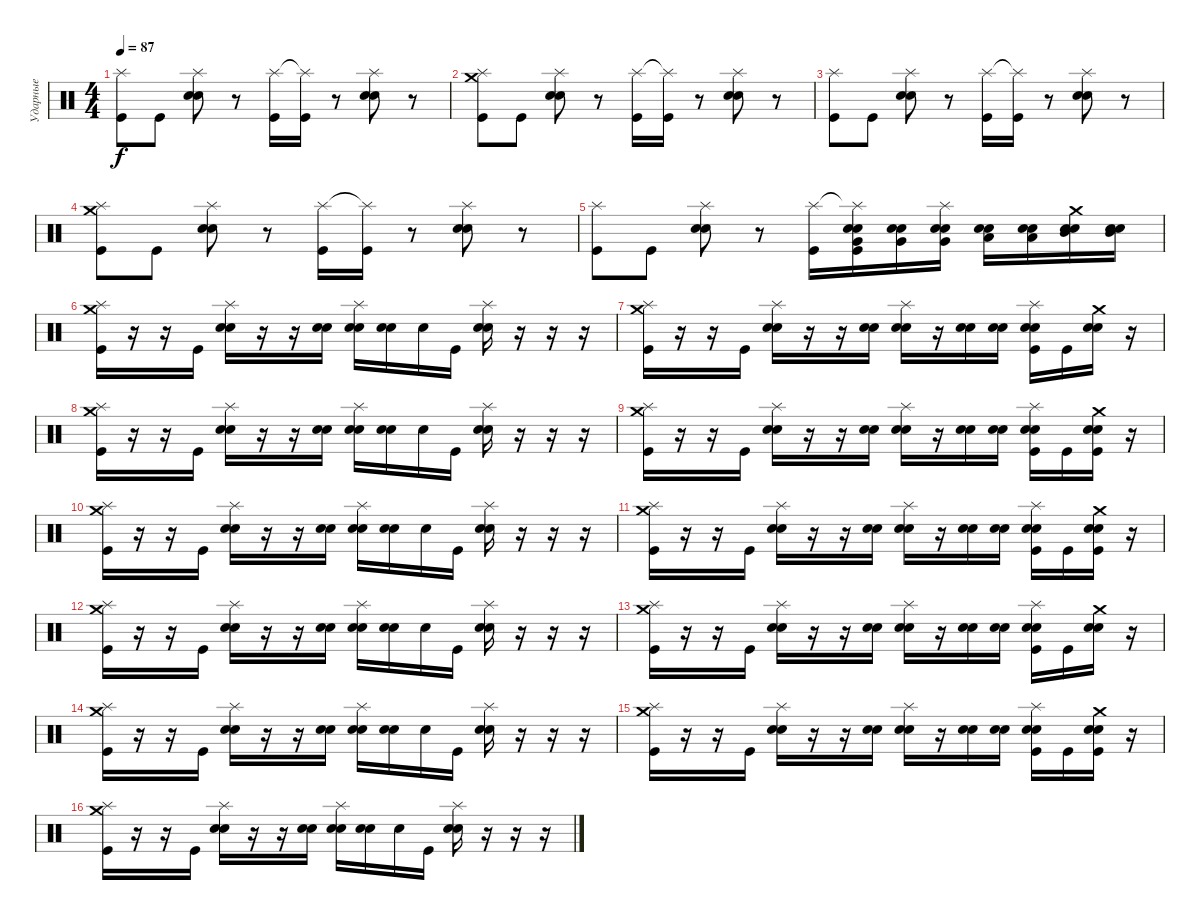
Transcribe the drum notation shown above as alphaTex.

\track ("Ударные" "Ударные") {instrument percussion}
\staff {score}
\articulation defaults
\ts (4 4)
\tempo 87
\clef neutral
\ks c
("Splash (hit)" "Kick (hit)").8{dy f} "Kick (hit)".8 ("Splash (hit)" "Electric Snare (hit)" "Electric Snare (hit)").8 r.8 ("Splash (hit)" "Kick (hit)").16 ("Splash (hit)"{t} "Kick (hit)").16 r.8 ("Splash (hit)" "Electric Snare (hit)" "Electric Snare (hit)").8 r.8 |
("Splash (hit)" "Crash medium (hit)" "Kick (hit)").8 "Kick (hit)".8 ("Splash (hit)" "Electric Snare (hit)" "Electric Snare (hit)").8 r.8 ("Splash (hit)" "Kick (hit)").16 ("Splash (hit)"{t} "Kick (hit)").16 r.8 ("Splash (hit)" "Electric Snare (hit)" "Electric Snare (hit)").8 r.8 |
("Splash (hit)" "Kick (hit)").8 "Kick (hit)".8 ("Splash (hit)" "Electric Snare (hit)" "Electric Snare (hit)").8 r.8 ("Splash (hit)" "Kick (hit)").16 ("Splash (hit)"{t} "Kick (hit)").16 r.8 ("Splash (hit)" "Electric Snare (hit)" "Electric Snare (hit)").8 r.8 |
("Splash (hit)" "Crash medium (hit)" "Kick (hit)").8 "Kick (hit)".8 ("Splash (hit)" "Electric Snare (hit)" "Electric Snare (hit)").8 r.8 ("Splash (hit)" "Kick (hit)").16 ("Splash (hit)"{t} "Kick (hit)").16 r.8 ("Splash (hit)" "Electric Snare (hit)" "Electric Snare (hit)").8 r.8 |
("Splash (hit)" "Kick (hit)").8 "Kick (hit)".8 ("Splash (hit)" "Electric Snare (hit)" "Electric Snare (hit)").8 r.8 ("Splash (hit)" "Kick (hit)").16 ("Splash (hit)"{t} "Electric Snare (hit)" "Electric Snare (hit)" "Very Low Tom (hit)" "Kick (hit)").16 ("Electric Snare (hit)" "Electric Snare (hit)" "Very Low Tom (hit)").16 ("Splash (hit)" "Electric Snare (hit)" "Electric Snare (hit)" "Very Low Tom (hit)").16 ("Electric Snare (hit)" "Electric Snare (hit)" "Low Floor Tom (hit)").16 ("Electric Snare (hit)" "Electric Snare (hit)" "Low Floor Tom (hit)").16 ("Crash medium (hit)" "Electric Snare (hit)" "Electric Snare (hit)" "Mid Tom (hit)").16 ("Electric Snare (hit)" "Electric Snare (hit)" "Mid Tom (hit)").16 |
("Splash (hit)" "Crash medium (hit)" "Kick (hit)").16 r.16 r.16 "Kick (hit)".16 ("Splash (hit)" "Electric Snare (hit)" "Electric Snare (hit)").16 r.16 r.16 ("Electric Snare (hit)" "Electric Snare (hit)").16 ("Splash (hit)" "Electric Snare (hit)" "Electric Snare (hit)").16 ("Electric Snare (hit)" "Electric Snare (hit)").16 "Electric Snare (hit)".16 "Kick (hit)".16 ("Splash (hit)" "Electric Snare (hit)" "Electric Snare (hit)").16 r.16 r.16 r.16 |
("Splash (hit)" "Crash medium (hit)" "Kick (hit)").16 r.16 r.16 "Kick (hit)".16 ("Splash (hit)" "Electric Snare (hit)" "Electric Snare (hit)").16 r.16 r.16 ("Electric Snare (hit)" "Electric Snare (hit)").16 ("Splash (hit)" "Electric Snare (hit)" "Electric Snare (hit)").16 r.16 ("Electric Snare (hit)" "Electric Snare (hit)").16 ("Electric Snare (hit)" "Electric Snare (hit)").16 ("Splash (hit)" "Electric Snare (hit)" "Electric Snare (hit)" "Kick (hit)").16 "Kick (hit)".16 ("Crash medium (hit)" "Electric Snare (hit)" "Electric Snare (hit)").16 r.16 |
("Splash (hit)" "Crash medium (hit)" "Kick (hit)").16 r.16 r.16 "Kick (hit)".16 ("Splash (hit)" "Electric Snare (hit)" "Electric Snare (hit)").16 r.16 r.16 ("Electric Snare (hit)" "Electric Snare (hit)").16 ("Splash (hit)" "Electric Snare (hit)" "Electric Snare (hit)").16 ("Electric Snare (hit)" "Electric Snare (hit)").16 "Electric Snare (hit)".16 "Kick (hit)".16 ("Splash (hit)" "Electric Snare (hit)" "Electric Snare (hit)").16 r.16 r.16 r.16 |
("Splash (hit)" "Crash medium (hit)" "Kick (hit)").16 r.16 r.16 "Kick (hit)".16 ("Splash (hit)" "Electric Snare (hit)" "Electric Snare (hit)").16 r.16 r.16 ("Electric Snare (hit)" "Electric Snare (hit)").16 ("Splash (hit)" "Electric Snare (hit)" "Electric Snare (hit)").16 r.16 ("Electric Snare (hit)" "Electric Snare (hit)").16 ("Electric Snare (hit)" "Electric Snare (hit)").16 ("Splash (hit)" "Electric Snare (hit)" "Electric Snare (hit)" "Kick (hit)").16 "Kick (hit)".16 ("Crash medium (hit)" "Electric Snare (hit)" "Electric Snare (hit)" "Kick (hit)").16 r.16 |
("Splash (hit)" "Crash medium (hit)" "Kick (hit)").16 r.16 r.16 "Kick (hit)".16 ("Splash (hit)" "Electric Snare (hit)" "Electric Snare (hit)").16 r.16 r.16 ("Electric Snare (hit)" "Electric Snare (hit)").16 ("Splash (hit)" "Electric Snare (hit)" "Electric Snare (hit)").16 ("Electric Snare (hit)" "Electric Snare (hit)").16 "Electric Snare (hit)".16 "Kick (hit)".16 ("Splash (hit)" "Electric Snare (hit)" "Electric Snare (hit)").16 r.16 r.16 r.16 |
("Splash (hit)" "Crash medium (hit)" "Kick (hit)").16 r.16 r.16 "Kick (hit)".16 ("Splash (hit)" "Electric Snare (hit)" "Electric Snare (hit)").16 r.16 r.16 ("Electric Snare (hit)" "Electric Snare (hit)").16 ("Splash (hit)" "Electric Snare (hit)" "Electric Snare (hit)").16 r.16 ("Electric Snare (hit)" "Electric Snare (hit)").16 ("Electric Snare (hit)" "Electric Snare (hit)").16 ("Splash (hit)" "Electric Snare (hit)" "Electric Snare (hit)" "Kick (hit)").16 "Kick (hit)".16 ("Crash medium (hit)" "Electric Snare (hit)" "Electric Snare (hit)" "Kick (hit)").16 r.16 |
("Splash (hit)" "Crash medium (hit)" "Kick (hit)").16 r.16 r.16 "Kick (hit)".16 ("Splash (hit)" "Electric Snare (hit)" "Electric Snare (hit)").16 r.16 r.16 ("Electric Snare (hit)" "Electric Snare (hit)").16 ("Splash (hit)" "Electric Snare (hit)" "Electric Snare (hit)").16 ("Electric Snare (hit)" "Electric Snare (hit)").16 "Electric Snare (hit)".16 "Kick (hit)".16 ("Splash (hit)" "Electric Snare (hit)" "Electric Snare (hit)").16 r.16 r.16 r.16 |
("Splash (hit)" "Crash medium (hit)" "Kick (hit)").16 r.16 r.16 "Kick (hit)".16 ("Splash (hit)" "Electric Snare (hit)" "Electric Snare (hit)").16 r.16 r.16 ("Electric Snare (hit)" "Electric Snare (hit)").16 ("Splash (hit)" "Electric Snare (hit)" "Electric Snare (hit)").16 r.16 ("Electric Snare (hit)" "Electric Snare (hit)").16 ("Electric Snare (hit)" "Electric Snare (hit)").16 ("Splash (hit)" "Electric Snare (hit)" "Electric Snare (hit)" "Kick (hit)").16 "Kick (hit)".16 ("Crash medium (hit)" "Electric Snare (hit)" "Electric Snare (hit)").16 r.16 |
("Splash (hit)" "Crash medium (hit)" "Kick (hit)").16 r.16 r.16 "Kick (hit)".16 ("Splash (hit)" "Electric Snare (hit)" "Electric Snare (hit)").16 r.16 r.16 ("Electric Snare (hit)" "Electric Snare (hit)").16 ("Splash (hit)" "Electric Snare (hit)" "Electric Snare (hit)").16 ("Electric Snare (hit)" "Electric Snare (hit)").16 "Electric Snare (hit)".16 "Kick (hit)".16 ("Splash (hit)" "Electric Snare (hit)" "Electric Snare (hit)").16 r.16 r.16 r.16 |
("Splash (hit)" "Crash medium (hit)" "Kick (hit)").16 r.16 r.16 "Kick (hit)".16 ("Splash (hit)" "Electric Snare (hit)" "Electric Snare (hit)").16 r.16 r.16 ("Electric Snare (hit)" "Electric Snare (hit)").16 ("Splash (hit)" "Electric Snare (hit)" "Electric Snare (hit)").16 r.16 ("Electric Snare (hit)" "Electric Snare (hit)").16 ("Electric Snare (hit)" "Electric Snare (hit)").16 ("Splash (hit)" "Electric Snare (hit)" "Electric Snare (hit)" "Kick (hit)").16 "Kick (hit)".16 ("Crash medium (hit)" "Electric Snare (hit)" "Electric Snare (hit)" "Kick (hit)").16 r.16 |
("Splash (hit)" "Crash medium (hit)" "Kick (hit)").16 r.16 r.16 "Kick (hit)".16 ("Splash (hit)" "Electric Snare (hit)" "Electric Snare (hit)").16 r.16 r.16 ("Electric Snare (hit)" "Electric Snare (hit)").16 ("Splash (hit)" "Electric Snare (hit)" "Electric Snare (hit)").16 ("Electric Snare (hit)" "Electric Snare (hit)").16 "Electric Snare (hit)".16 "Kick (hit)".16 ("Splash (hit)" "Electric Snare (hit)" "Electric Snare (hit)").16 r.16 r.16 r.16
